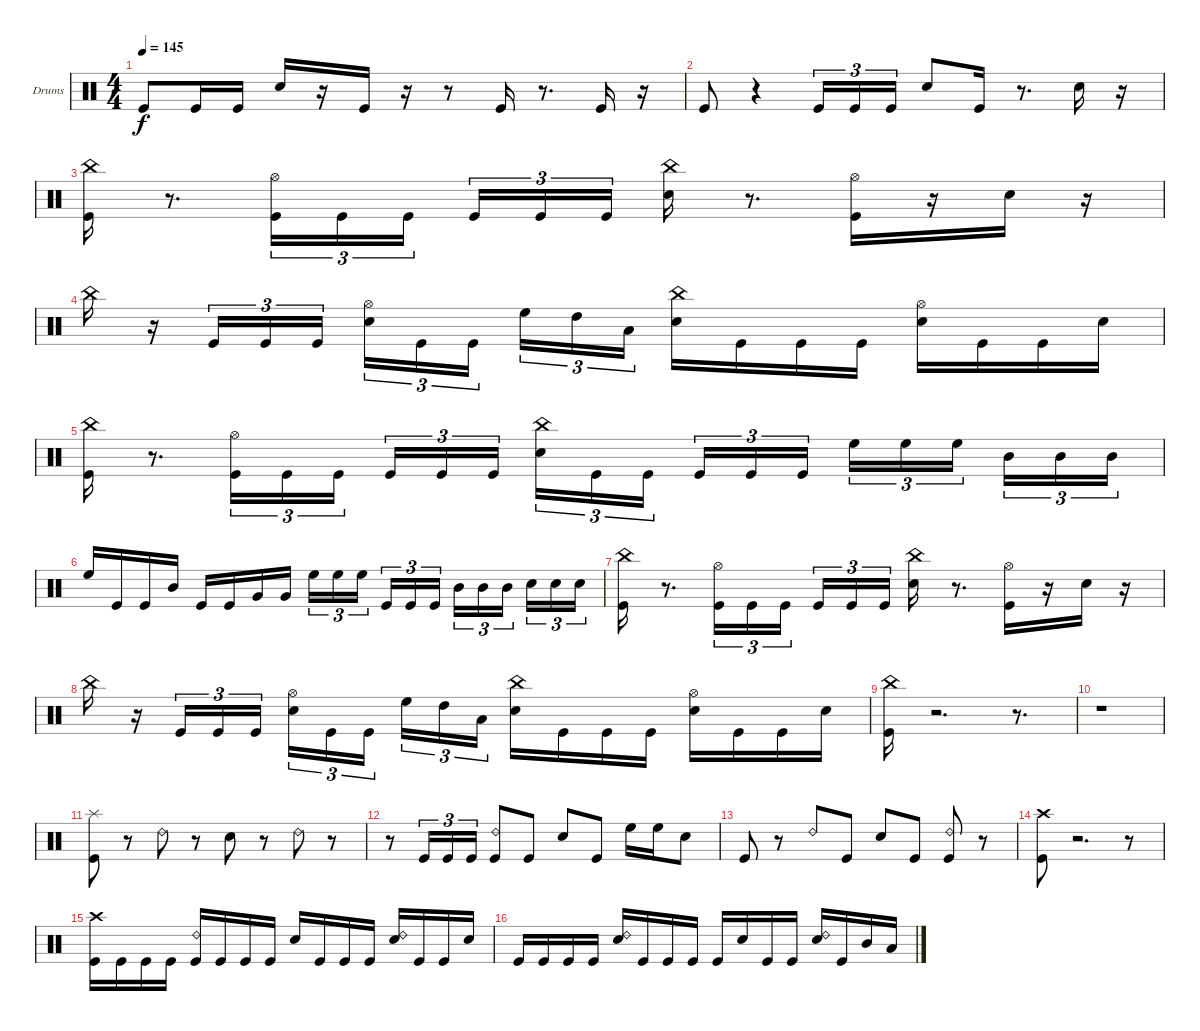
\bracketExtendMode groupsimilarinstruments
\firstSystemTrackNameOrientation horizontal
\otherSystemsTrackNameOrientation horizontal
\track ("Drumkit" "Drums") {instrument percussion}
\staff {score}
\articulation defaults
\ts (4 4)
\tempo 145
\clef neutral
\ks c "Kick (hit)".8{dy f} "Kick (hit)".16 "Kick (hit)".16 "Snare (hit) 2".16
r.16 "Kick (hit)".16 r.16 r.8 "Kick (hit)".16 r.8{d} "Kick (hit)".16 r.16 |
"Kick (hit)".8 r.4 "Kick (hit)".16{tu (3 2)} "Kick (hit)".16{tu (3 2)} "Kick (hit)".16{tu (3 2)} "Snare (hit) 2".8 "Kick (hit)".16 r.8{d} "Snare (hit) 2".16 r.16 |
("Kick (hit)" "China (hit)").16 r.8{d} ("Hi-Hat (open)" "Kick (hit)").16{tu (3 2)} "Kick (hit)".16{tu (3 2)} "Kick (hit)".16{tu (3 2)} "Kick (hit)".16{tu (3 2)} "Kick (hit)".16{tu (3 2)} "Kick (hit)".16{tu (3 2)} ("Snare (hit) 2" "China (hit)").16 r.8{d} ("Hi-Hat (open)" "Kick (hit)").16 r.16 "Snare (hit) 2".16 r.16 |
"China (hit)".16 r.16 "Kick (hit)".16{tu (3 2)} "Kick (hit)".16{tu (3 2)} "Kick (hit)".16{tu (3 2)} ("Hi-Hat (open)" "Snare (hit) 2").16{tu (3 2)} "Kick (hit)".16{tu (3 2)} "Kick (hit)".16{tu (3 2)} "High Floor Tom (hit)".16{tu (3 2)} "High Tom (hit)".16{tu (3 2)} "Low Tom (hit)".16{tu (3 2)} ("Snare (hit) 2" "China (hit)").16 "Kick (hit)".16 "Kick (hit)".16 "Kick (hit)".16 ("Snare (hit) 2" "Hi-Hat (open)").16 "Kick (hit)".16 "Kick (hit)".16 "Snare (hit) 2".16 |
("China (hit)" "Kick (hit)").16 r.8{d} ("Hi-Hat (open)" "Kick (hit)").16{tu (3 2)} "Kick (hit)".16{tu (3 2)} "Kick (hit)".16{tu (3 2)} "Kick (hit)".16{tu (3 2)} "Kick (hit)".16{tu (3 2)} "Kick (hit)".16{tu (3 2)} ("Snare (hit) 2" "China (hit)").16{tu (3 2)} "Kick (hit)".16{tu (3 2)} "Kick (hit)".16{tu (3 2)} "Kick (hit)".16{tu (3 2)} "Kick (hit)".16{tu (3 2)} "Kick (hit)".16{tu (3 2)} "High Floor Tom (hit)".16{tu (3 2)} "High Floor Tom (hit)".16{tu (3 2)} "High Floor Tom (hit)".16{tu (3 2)} "Mid Tom (hit)".16{tu (3 2)} "Mid Tom (hit)".16{tu (3 2)} "Mid Tom (hit)".16{tu (3 2)} |
"High Floor Tom (hit)".16 "Kick (hit)".16 "Kick (hit)".16 "Mid Tom (hit)".16 "Kick (hit)".16 "Kick (hit)".16 "Very Low Tom (hit)".16 "Very Low Tom (hit)".16 "High Floor Tom (hit)".16{tu (3 2)} "High Floor Tom (hit)".16{tu (3 2)} "High Floor Tom (hit)".16{tu (3 2)} "Kick (hit)".16{tu (3 2)} "Kick (hit)".16{tu (3 2)} "Kick (hit)".16{tu (3 2)} "Mid Tom (hit)".16{tu (3 2)} "Mid Tom (hit)".16{tu (3 2)} "Mid Tom (hit)".16{tu (3 2)} "Snare (hit) 2".16{tu (3 2)} "Snare (hit) 2".16{tu (3 2)} "Snare (hit) 2".16{tu (3 2)} |
("China (hit)" "Kick (hit)").16 r.8{d} ("Hi-Hat (open)" "Kick (hit)").16{tu (3 2)} "Kick (hit)".16{tu (3 2)} "Kick (hit)".16{tu (3 2)} "Kick (hit)".16{tu (3 2)} "Kick (hit)".16{tu (3 2)} "Kick (hit)".16{tu (3 2)} ("Snare (hit) 2" "China (hit)").16 r.8{d} ("Kick (hit)" "Hi-Hat (open)").16 r.16 "Snare (hit) 2".16 r.16 |
"China (hit)".16 r.16 "Kick (hit)".16{tu (3 2)} "Kick (hit)".16{tu (3 2)} "Kick (hit)".16{tu (3 2)} ("Hi-Hat (open)" "Snare (hit) 2").16{tu (3 2)} "Kick (hit)".16{tu (3 2)} "Kick (hit)".16{tu (3 2)} "High Floor Tom (hit)".16{tu (3 2)} "High Tom (hit)".16{tu (3 2)} "Low Tom (hit)".16{tu (3 2)} ("China (hit)" "Snare (hit) 2").16 "Kick (hit)".16 "Kick (hit)".16 "Kick (hit)".16 ("Hi-Hat (open)" "Snare (hit) 2").16 "Kick (hit)".16 "Kick (hit)".16 "Snare (hit) 2".16 |
("China (hit)" "Kick (hit)").16 r.2{d} r.8{d} |
r.1 |
("Kick (hit)" "Splash (hit)").8 r.8 "Ride (bell) 2".8 r.8 "Snare (hit) 2".8 r.8 "Ride (bell) 2".8 r.8 |
r.8 "Kick (hit)".16{tu (3 2)} "Kick (hit)".16{tu (3 2)} "Kick (hit)".16{tu (3 2)} ("Kick (hit)" "Ride (bell) 2").8 "Kick (hit)".8 "Snare (hit) 2".8 "Kick (hit)".8 "High Floor Tom (hit)".16 "High Floor Tom (hit)".16 "Snare (hit) 2".8 |
"Kick (hit)".8 r.8 "Ride (bell) 2".8 "Kick (hit)".8 "Snare (hit) 2".8 "Kick (hit)".8 ("Kick (hit)" "Ride (bell) 2").8 r.8 |
("Crash high (hit)" "Kick (hit)").8 r.2{d} r.8 |
("Crash high (hit)" "Kick (hit)").16 "Kick (hit)".16 "Kick (hit)".16 "Kick (hit)".16 ("Ride (bell) 2" "Kick (hit)").16 "Kick (hit)".16 "Kick (hit)".16 "Kick (hit)".16 "Snare (hit) 2".16 "Kick (hit)".16 "Kick (hit)".16 "Kick (hit)".16 ("Ride (bell) 2" "Snare (hit) 2").16 "Kick (hit)".16 "Kick (hit)".16 "Snare (hit) 2".16 |
"Kick (hit)".16 "Kick (hit)".16 "Kick (hit)".16 "Kick (hit)".16 ("Ride (bell) 2" "Snare (hit) 2").16 "Kick (hit)".16 "Kick (hit)".16 "Kick (hit)".16 "Kick (hit)".16 "Snare (hit) 2".16 "Kick (hit)".16 "Kick (hit)".16 ("Ride (bell) 2" "Snare (hit) 2").16 "Kick (hit)".16 "Mid Tom (hit)".16 "Low Tom (hit)".16
